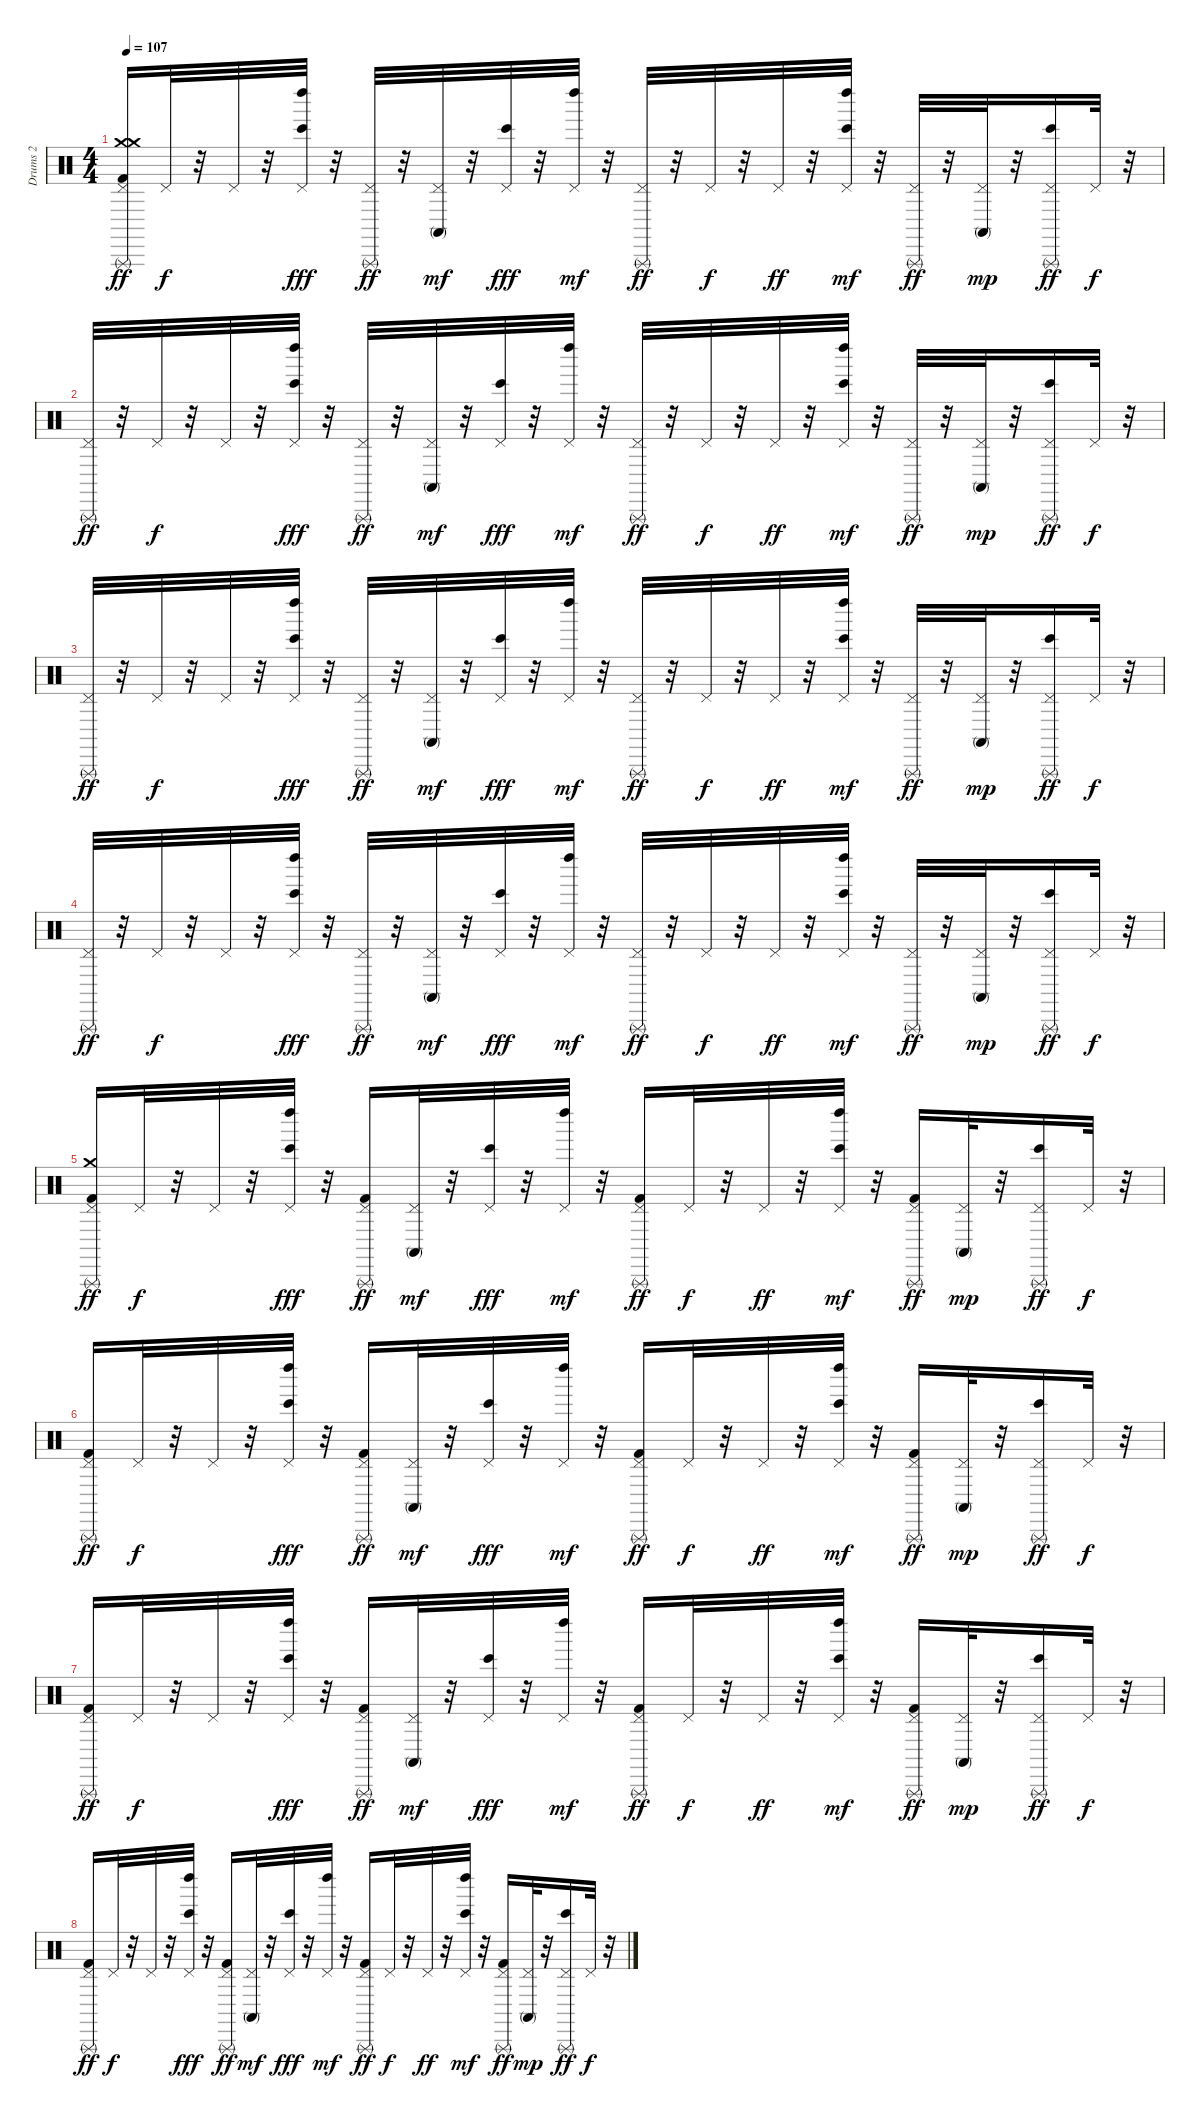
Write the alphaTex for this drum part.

\track ("Drums 2" "Drums 2") {instrument percussion}
\staff {score}
\articulation defaults
\ts (4 4)
\tempo 107
\clef neutral
\ks c
("Kick (hit) 2" "Crash medium (hit)" "Pedal Hi-Hat (hit)" "Triangle (rnute)" "Crash medium (hit)").16{dy ff} "Pedal Hi-Hat (hit)".32{dy f} r.32 "Pedal Hi-Hat (hit)".32 r.32 ("Pedal Hi-Hat (hit)" "Bongo High (hit)" "Left Maraca (hit)").32{dy fff} r.32 ("Pedal Hi-Hat (hit)" "Triangle (rnute)").32{dy ff} r.32 ("Pedal Hi-Hat (hit)" "Conga high (mute)").32{dy mf} r.32 ("Pedal Hi-Hat (hit)" "Bongo High (hit)").32{dy fff} r.32 ("Pedal Hi-Hat (hit)" "Left Maraca (hit)").32{dy mf} r.32 ("Pedal Hi-Hat (hit)" "Triangle (rnute)").32{dy ff} r.32 "Pedal Hi-Hat (hit)".32{dy f} r.32 "Pedal Hi-Hat (hit)".32{dy ff} r.32 ("Pedal Hi-Hat (hit)" "Bongo High (hit)" "Left Maraca (hit)").32{dy mf} r.32 ("Pedal Hi-Hat (hit)" "Triangle (rnute)").32{dy ff} r.32 ("Pedal Hi-Hat (hit)" "Conga high (mute)").32{dy mp} r.32 ("Pedal Hi-Hat (hit)" "Bongo High (hit)" "Triangle (rnute)").16{dy ff} "Pedal Hi-Hat (hit)".32{dy f} r.32 |
("Pedal Hi-Hat (hit)" "Triangle (rnute)").32{dy ff} r.32 "Pedal Hi-Hat (hit)".32{dy f} r.32 "Pedal Hi-Hat (hit)".32 r.32 ("Pedal Hi-Hat (hit)" "Bongo High (hit)" "Left Maraca (hit)").32{dy fff} r.32 ("Pedal Hi-Hat (hit)" "Triangle (rnute)").32{dy ff} r.32 ("Pedal Hi-Hat (hit)" "Conga high (mute)").32{dy mf} r.32 ("Pedal Hi-Hat (hit)" "Bongo High (hit)").32{dy fff} r.32 ("Pedal Hi-Hat (hit)" "Left Maraca (hit)").32{dy mf} r.32 ("Pedal Hi-Hat (hit)" "Triangle (rnute)").32{dy ff} r.32 "Pedal Hi-Hat (hit)".32{dy f} r.32 "Pedal Hi-Hat (hit)".32{dy ff} r.32 ("Pedal Hi-Hat (hit)" "Bongo High (hit)" "Left Maraca (hit)").32{dy mf} r.32 ("Pedal Hi-Hat (hit)" "Triangle (rnute)").32{dy ff} r.32 ("Pedal Hi-Hat (hit)" "Conga high (mute)").32{dy mp} r.32 ("Pedal Hi-Hat (hit)" "Bongo High (hit)" "Triangle (rnute)").16{dy ff} "Pedal Hi-Hat (hit)".32{dy f} r.32 |
("Pedal Hi-Hat (hit)" "Triangle (rnute)").32{dy ff} r.32 "Pedal Hi-Hat (hit)".32{dy f} r.32 "Pedal Hi-Hat (hit)".32 r.32 ("Pedal Hi-Hat (hit)" "Bongo High (hit)" "Left Maraca (hit)").32{dy fff} r.32 ("Pedal Hi-Hat (hit)" "Triangle (rnute)").32{dy ff} r.32 ("Pedal Hi-Hat (hit)" "Conga high (mute)").32{dy mf} r.32 ("Pedal Hi-Hat (hit)" "Bongo High (hit)").32{dy fff} r.32 ("Pedal Hi-Hat (hit)" "Left Maraca (hit)").32{dy mf} r.32 ("Pedal Hi-Hat (hit)" "Triangle (rnute)").32{dy ff} r.32 "Pedal Hi-Hat (hit)".32{dy f} r.32 "Pedal Hi-Hat (hit)".32{dy ff} r.32 ("Pedal Hi-Hat (hit)" "Bongo High (hit)" "Left Maraca (hit)").32{dy mf} r.32 ("Pedal Hi-Hat (hit)" "Triangle (rnute)").32{dy ff} r.32 ("Pedal Hi-Hat (hit)" "Conga high (mute)").32{dy mp} r.32 ("Pedal Hi-Hat (hit)" "Bongo High (hit)" "Triangle (rnute)").16{dy ff} "Pedal Hi-Hat (hit)".32{dy f} r.32 |
("Pedal Hi-Hat (hit)" "Triangle (rnute)").32{dy ff} r.32 "Pedal Hi-Hat (hit)".32{dy f} r.32 "Pedal Hi-Hat (hit)".32 r.32 ("Pedal Hi-Hat (hit)" "Bongo High (hit)" "Left Maraca (hit)").32{dy fff} r.32 ("Pedal Hi-Hat (hit)" "Triangle (rnute)").32{dy ff} r.32 ("Pedal Hi-Hat (hit)" "Conga high (mute)").32{dy mf} r.32 ("Pedal Hi-Hat (hit)" "Bongo High (hit)").32{dy fff} r.32 ("Pedal Hi-Hat (hit)" "Left Maraca (hit)").32{dy mf} r.32 ("Pedal Hi-Hat (hit)" "Triangle (rnute)").32{dy ff} r.32 "Pedal Hi-Hat (hit)".32{dy f} r.32 "Pedal Hi-Hat (hit)".32{dy ff} r.32 ("Pedal Hi-Hat (hit)" "Bongo High (hit)" "Left Maraca (hit)").32{dy mf} r.32 ("Pedal Hi-Hat (hit)" "Triangle (rnute)").32{dy ff} r.32 ("Pedal Hi-Hat (hit)" "Conga high (mute)").32{dy mp} r.32 ("Pedal Hi-Hat (hit)" "Bongo High (hit)" "Triangle (rnute)").16{dy ff} "Pedal Hi-Hat (hit)".32{dy f} r.32 |
("Kick (hit) 2" "Pedal Hi-Hat (hit)" "Triangle (rnute)" "Crash medium (hit)").16{dy ff} "Pedal Hi-Hat (hit)".32{dy f} r.32 "Pedal Hi-Hat (hit)".32 r.32 ("Pedal Hi-Hat (hit)" "Bongo High (hit)" "Left Maraca (hit)").32{dy fff} r.32 ("Kick (hit) 2" "Pedal Hi-Hat (hit)" "Triangle (rnute)").16{dy ff} ("Pedal Hi-Hat (hit)" "Conga high (mute)").32{dy mf} r.32 ("Pedal Hi-Hat (hit)" "Bongo High (hit)").32{dy fff} r.32 ("Pedal Hi-Hat (hit)" "Left Maraca (hit)").32{dy mf} r.32 ("Kick (hit) 2" "Pedal Hi-Hat (hit)" "Triangle (rnute)").16{dy ff} "Pedal Hi-Hat (hit)".32{dy f} r.32 "Pedal Hi-Hat (hit)".32{dy ff} r.32 ("Pedal Hi-Hat (hit)" "Bongo High (hit)" "Left Maraca (hit)").32{dy mf} r.32 ("Kick (hit) 2" "Pedal Hi-Hat (hit)" "Triangle (rnute)").16{dy ff} ("Pedal Hi-Hat (hit)" "Conga high (mute)").32{dy mp} r.32 ("Pedal Hi-Hat (hit)" "Bongo High (hit)" "Triangle (rnute)").16{dy ff} "Pedal Hi-Hat (hit)".32{dy f} r.32 |
("Kick (hit) 2" "Pedal Hi-Hat (hit)" "Triangle (rnute)").16{dy ff} "Pedal Hi-Hat (hit)".32{dy f} r.32 "Pedal Hi-Hat (hit)".32 r.32 ("Pedal Hi-Hat (hit)" "Bongo High (hit)" "Left Maraca (hit)").32{dy fff} r.32 ("Kick (hit) 2" "Pedal Hi-Hat (hit)" "Triangle (rnute)").16{dy ff} ("Pedal Hi-Hat (hit)" "Conga high (mute)").32{dy mf} r.32 ("Pedal Hi-Hat (hit)" "Bongo High (hit)").32{dy fff} r.32 ("Pedal Hi-Hat (hit)" "Left Maraca (hit)").32{dy mf} r.32 ("Kick (hit) 2" "Pedal Hi-Hat (hit)" "Triangle (rnute)").16{dy ff} "Pedal Hi-Hat (hit)".32{dy f} r.32 "Pedal Hi-Hat (hit)".32{dy ff} r.32 ("Pedal Hi-Hat (hit)" "Bongo High (hit)" "Left Maraca (hit)").32{dy mf} r.32 ("Kick (hit) 2" "Pedal Hi-Hat (hit)" "Triangle (rnute)").16{dy ff} ("Pedal Hi-Hat (hit)" "Conga high (mute)").32{dy mp} r.32 ("Pedal Hi-Hat (hit)" "Bongo High (hit)" "Triangle (rnute)").16{dy ff} "Pedal Hi-Hat (hit)".32{dy f} r.32 |
("Kick (hit) 2" "Pedal Hi-Hat (hit)" "Triangle (rnute)").16{dy ff} "Pedal Hi-Hat (hit)".32{dy f} r.32 "Pedal Hi-Hat (hit)".32 r.32 ("Pedal Hi-Hat (hit)" "Bongo High (hit)" "Left Maraca (hit)").32{dy fff} r.32 ("Kick (hit) 2" "Pedal Hi-Hat (hit)" "Triangle (rnute)").16{dy ff} ("Pedal Hi-Hat (hit)" "Conga high (mute)").32{dy mf} r.32 ("Pedal Hi-Hat (hit)" "Bongo High (hit)").32{dy fff} r.32 ("Pedal Hi-Hat (hit)" "Left Maraca (hit)").32{dy mf} r.32 ("Kick (hit) 2" "Pedal Hi-Hat (hit)" "Triangle (rnute)").16{dy ff} "Pedal Hi-Hat (hit)".32{dy f} r.32 "Pedal Hi-Hat (hit)".32{dy ff} r.32 ("Pedal Hi-Hat (hit)" "Bongo High (hit)" "Left Maraca (hit)").32{dy mf} r.32 ("Kick (hit) 2" "Pedal Hi-Hat (hit)" "Triangle (rnute)").16{dy ff} ("Pedal Hi-Hat (hit)" "Conga high (mute)").32{dy mp} r.32 ("Pedal Hi-Hat (hit)" "Bongo High (hit)" "Triangle (rnute)").16{dy ff} "Pedal Hi-Hat (hit)".32{dy f} r.32 |
("Kick (hit) 2" "Pedal Hi-Hat (hit)" "Triangle (rnute)").16{dy ff} "Pedal Hi-Hat (hit)".32{dy f} r.32 "Pedal Hi-Hat (hit)".32 r.32 ("Pedal Hi-Hat (hit)" "Bongo High (hit)" "Left Maraca (hit)").32{dy fff} r.32 ("Kick (hit) 2" "Pedal Hi-Hat (hit)" "Triangle (rnute)").16{dy ff} ("Pedal Hi-Hat (hit)" "Conga high (mute)").32{dy mf} r.32 ("Pedal Hi-Hat (hit)" "Bongo High (hit)").32{dy fff} r.32 ("Pedal Hi-Hat (hit)" "Left Maraca (hit)").32{dy mf} r.32 ("Kick (hit) 2" "Pedal Hi-Hat (hit)" "Triangle (rnute)").16{dy ff} "Pedal Hi-Hat (hit)".32{dy f} r.32 "Pedal Hi-Hat (hit)".32{dy ff} r.32 ("Pedal Hi-Hat (hit)" "Bongo High (hit)" "Left Maraca (hit)").32{dy mf} r.32 ("Kick (hit) 2" "Pedal Hi-Hat (hit)" "Triangle (rnute)").16{dy ff} ("Pedal Hi-Hat (hit)" "Conga high (mute)").32{dy mp} r.32 ("Pedal Hi-Hat (hit)" "Bongo High (hit)" "Triangle (rnute)").16{dy ff} "Pedal Hi-Hat (hit)".32{dy f} r.32
